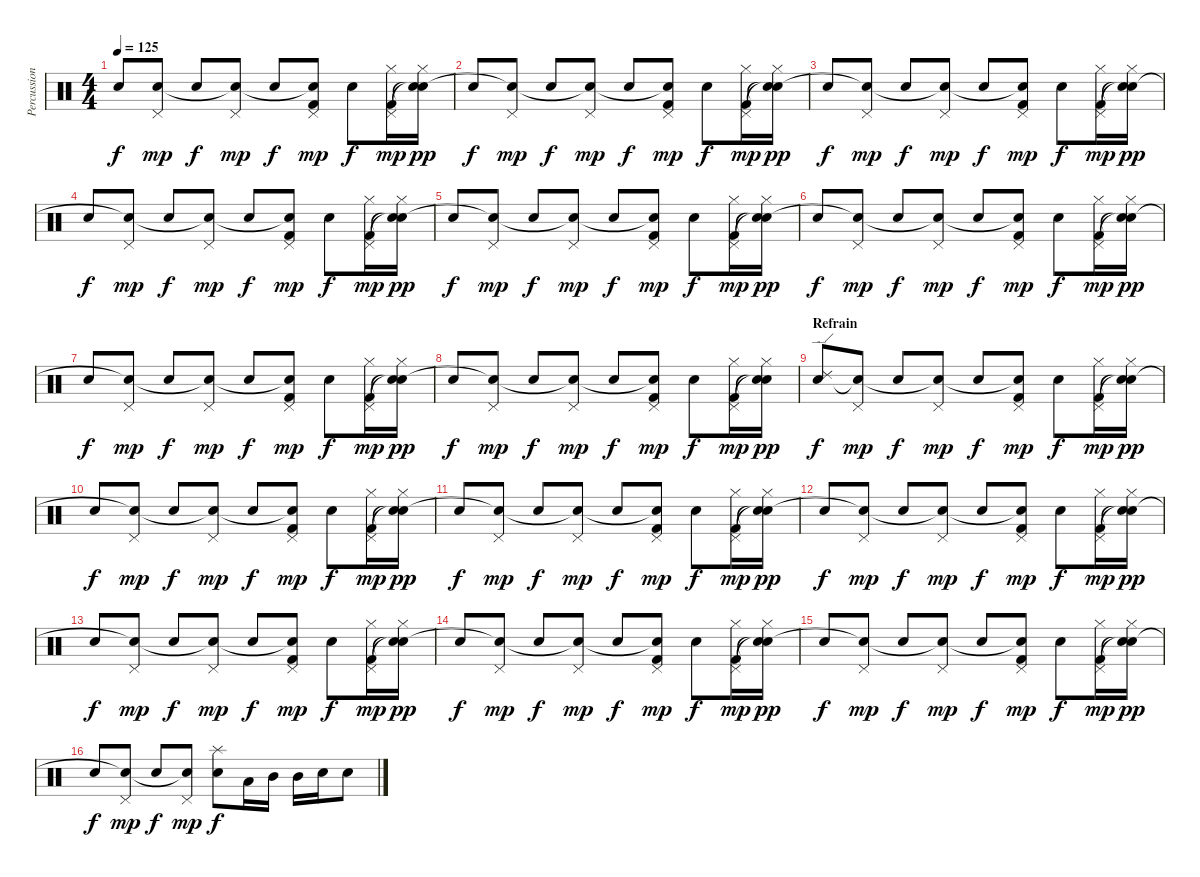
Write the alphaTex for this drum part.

\track ("Percussion" "Percussion") {instrument percussion}
\staff {score}
\articulation defaults
\ts (4 4)
\tempo 125
\clef neutral
\ks c "Electric Snare (hit)".8{dy f}
("Pedal Hi-Hat (hit)" "Snare (hit)"{t}).8{dy mp} "Electric Snare (hit)".8{dy f} ("Pedal Hi-Hat (hit)" "Snare (hit)"{t}).8{dy mp} "Electric Snare (hit)".8{dy f} ("Pedal Hi-Hat (hit)" "Snare (hit)"{t} "Kick (hit) 2").8{dy mp} "Electric Snare (hit)".8{dy f} ("Hi-Hat (closed)" "Pedal Hi-Hat (hit)" "Kick (hit) 2").16{dy mp} ("Hi-Hat (closed)" "Snare (hit)"{t} "Snare (hit)"{t}).16{dy pp} |
"Electric Snare (hit)".8{dy f} ("Pedal Hi-Hat (hit)" "Snare (hit)"{t}).8{dy mp} "Electric Snare (hit)".8{dy f} ("Pedal Hi-Hat (hit)" "Snare (hit)"{t}).8{dy mp} "Electric Snare (hit)".8{dy f} ("Pedal Hi-Hat (hit)" "Snare (hit)"{t} "Kick (hit) 2").8{dy mp} "Electric Snare (hit)".8{dy f} ("Hi-Hat (closed)" "Pedal Hi-Hat (hit)" "Kick (hit) 2").16{dy mp} ("Hi-Hat (closed)" "Snare (hit)"{t} "Snare (hit)"{t}).16{dy pp} |
"Electric Snare (hit)".8{dy f} ("Pedal Hi-Hat (hit)" "Snare (hit)"{t}).8{dy mp} "Electric Snare (hit)".8{dy f} ("Pedal Hi-Hat (hit)" "Snare (hit)"{t}).8{dy mp} "Electric Snare (hit)".8{dy f} ("Pedal Hi-Hat (hit)" "Snare (hit)"{t} "Kick (hit) 2").8{dy mp} "Electric Snare (hit)".8{dy f} ("Hi-Hat (closed)" "Pedal Hi-Hat (hit)" "Kick (hit) 2").16{dy mp} ("Hi-Hat (closed)" "Snare (hit)"{t} "Snare (hit)"{t}).16{dy pp} |
"Electric Snare (hit)".8{dy f} ("Pedal Hi-Hat (hit)" "Snare (hit)"{t}).8{dy mp} "Electric Snare (hit)".8{dy f} ("Pedal Hi-Hat (hit)" "Snare (hit)"{t}).8{dy mp} "Electric Snare (hit)".8{dy f} ("Pedal Hi-Hat (hit)" "Snare (hit)"{t} "Kick (hit) 2").8{dy mp} "Electric Snare (hit)".8{dy f} ("Hi-Hat (closed)" "Pedal Hi-Hat (hit)" "Kick (hit) 2").16{dy mp} ("Hi-Hat (closed)" "Snare (hit)"{t} "Snare (hit)"{t}).16{dy pp} |
"Electric Snare (hit)".8{dy f} ("Pedal Hi-Hat (hit)" "Snare (hit)"{t}).8{dy mp} "Electric Snare (hit)".8{dy f} ("Pedal Hi-Hat (hit)" "Snare (hit)"{t}).8{dy mp} "Electric Snare (hit)".8{dy f} ("Pedal Hi-Hat (hit)" "Snare (hit)"{t} "Kick (hit) 2").8{dy mp} "Electric Snare (hit)".8{dy f} ("Hi-Hat (closed)" "Pedal Hi-Hat (hit)" "Kick (hit) 2").16{dy mp} ("Hi-Hat (closed)" "Snare (hit)"{t} "Snare (hit)"{t}).16{dy pp} |
"Electric Snare (hit)".8{dy f} ("Pedal Hi-Hat (hit)" "Snare (hit)"{t}).8{dy mp} "Electric Snare (hit)".8{dy f} ("Pedal Hi-Hat (hit)" "Snare (hit)"{t}).8{dy mp} "Electric Snare (hit)".8{dy f} ("Pedal Hi-Hat (hit)" "Snare (hit)"{t} "Kick (hit) 2").8{dy mp} "Electric Snare (hit)".8{dy f} ("Hi-Hat (closed)" "Pedal Hi-Hat (hit)" "Kick (hit) 2").16{dy mp} ("Hi-Hat (closed)" "Snare (hit)"{t} "Snare (hit)"{t}).16{dy pp} |
"Electric Snare (hit)".8{dy f} ("Pedal Hi-Hat (hit)" "Snare (hit)"{t}).8{dy mp} "Electric Snare (hit)".8{dy f} ("Pedal Hi-Hat (hit)" "Snare (hit)"{t}).8{dy mp} "Electric Snare (hit)".8{dy f} ("Pedal Hi-Hat (hit)" "Snare (hit)"{t} "Kick (hit) 2").8{dy mp} "Electric Snare (hit)".8{dy f} ("Hi-Hat (closed)" "Pedal Hi-Hat (hit)" "Kick (hit) 2").16{dy mp} ("Hi-Hat (closed)" "Snare (hit)"{t} "Snare (hit)"{t}).16{dy pp} |
"Electric Snare (hit)".8{dy f} ("Pedal Hi-Hat (hit)" "Snare (hit)"{t}).8{dy mp} "Electric Snare (hit)".8{dy f} ("Pedal Hi-Hat (hit)" "Snare (hit)"{t}).8{dy mp} "Electric Snare (hit)".8{dy f} ("Pedal Hi-Hat (hit)" "Snare (hit)"{t} "Kick (hit) 2").8{dy mp} "Electric Snare (hit)".8{dy f} ("Hi-Hat (closed)" "Pedal Hi-Hat (hit)" "Kick (hit) 2").16{dy mp} ("Hi-Hat (closed)" "Snare (hit)"{t} "Snare (hit)"{t}).16{dy pp} |
\section ("" "Refrain")
("Ride (edge) 2" "Electric Snare (hit)").8{dy f} ("Pedal Hi-Hat (hit)" "Snare (hit)"{t}).8{dy mp} "Electric Snare (hit)".8{dy f} ("Pedal Hi-Hat (hit)" "Snare (hit)"{t}).8{dy mp} "Electric Snare (hit)".8{dy f} ("Pedal Hi-Hat (hit)" "Snare (hit)"{t} "Kick (hit) 2").8{dy mp} "Electric Snare (hit)".8{dy f} ("Hi-Hat (closed)" "Pedal Hi-Hat (hit)" "Kick (hit) 2").16{dy mp} ("Hi-Hat (closed)" "Snare (hit)"{t} "Snare (hit)"{t}).16{dy pp} |
"Electric Snare (hit)".8{dy f} ("Pedal Hi-Hat (hit)" "Snare (hit)"{t}).8{dy mp} "Electric Snare (hit)".8{dy f} ("Pedal Hi-Hat (hit)" "Snare (hit)"{t}).8{dy mp} "Electric Snare (hit)".8{dy f} ("Pedal Hi-Hat (hit)" "Snare (hit)"{t} "Kick (hit) 2").8{dy mp} "Electric Snare (hit)".8{dy f} ("Hi-Hat (closed)" "Pedal Hi-Hat (hit)" "Kick (hit) 2").16{dy mp} ("Hi-Hat (closed)" "Snare (hit)"{t} "Snare (hit)"{t}).16{dy pp} |
"Electric Snare (hit)".8{dy f} ("Pedal Hi-Hat (hit)" "Snare (hit)"{t}).8{dy mp} "Electric Snare (hit)".8{dy f} ("Pedal Hi-Hat (hit)" "Snare (hit)"{t}).8{dy mp} "Electric Snare (hit)".8{dy f} ("Pedal Hi-Hat (hit)" "Snare (hit)"{t} "Kick (hit) 2").8{dy mp} "Electric Snare (hit)".8{dy f} ("Hi-Hat (closed)" "Pedal Hi-Hat (hit)" "Kick (hit) 2").16{dy mp} ("Hi-Hat (closed)" "Snare (hit)"{t} "Snare (hit)"{t}).16{dy pp} |
"Electric Snare (hit)".8{dy f} ("Pedal Hi-Hat (hit)" "Snare (hit)"{t}).8{dy mp} "Electric Snare (hit)".8{dy f} ("Pedal Hi-Hat (hit)" "Snare (hit)"{t}).8{dy mp} "Electric Snare (hit)".8{dy f} ("Pedal Hi-Hat (hit)" "Snare (hit)"{t} "Kick (hit) 2").8{dy mp} "Electric Snare (hit)".8{dy f} ("Hi-Hat (closed)" "Pedal Hi-Hat (hit)" "Kick (hit) 2").16{dy mp} ("Hi-Hat (closed)" "Snare (hit)"{t} "Snare (hit)"{t}).16{dy pp} |
"Electric Snare (hit)".8{dy f} ("Pedal Hi-Hat (hit)" "Snare (hit)"{t}).8{dy mp} "Electric Snare (hit)".8{dy f} ("Pedal Hi-Hat (hit)" "Snare (hit)"{t}).8{dy mp} "Electric Snare (hit)".8{dy f} ("Pedal Hi-Hat (hit)" "Snare (hit)"{t} "Kick (hit) 2").8{dy mp} "Electric Snare (hit)".8{dy f} ("Hi-Hat (closed)" "Pedal Hi-Hat (hit)" "Kick (hit) 2").16{dy mp} ("Hi-Hat (closed)" "Snare (hit)"{t} "Snare (hit)"{t}).16{dy pp} |
"Electric Snare (hit)".8{dy f} ("Pedal Hi-Hat (hit)" "Snare (hit)"{t}).8{dy mp} "Electric Snare (hit)".8{dy f} ("Pedal Hi-Hat (hit)" "Snare (hit)"{t}).8{dy mp} "Electric Snare (hit)".8{dy f} ("Pedal Hi-Hat (hit)" "Snare (hit)"{t} "Kick (hit) 2").8{dy mp} "Electric Snare (hit)".8{dy f} ("Hi-Hat (closed)" "Pedal Hi-Hat (hit)" "Kick (hit) 2").16{dy mp} ("Hi-Hat (closed)" "Snare (hit)"{t} "Snare (hit)"{t}).16{dy pp} |
"Electric Snare (hit)".8{dy f} ("Pedal Hi-Hat (hit)" "Snare (hit)"{t}).8{dy mp} "Electric Snare (hit)".8{dy f} ("Pedal Hi-Hat (hit)" "Snare (hit)"{t}).8{dy mp} "Electric Snare (hit)".8{dy f} ("Pedal Hi-Hat (hit)" "Snare (hit)"{t} "Kick (hit) 2").8{dy mp} "Electric Snare (hit)".8{dy f} ("Hi-Hat (closed)" "Pedal Hi-Hat (hit)" "Kick (hit) 2").16{dy mp} ("Hi-Hat (closed)" "Snare (hit)"{t} "Snare (hit)"{t}).16{dy pp} |
"Electric Snare (hit)".8{dy f} ("Pedal Hi-Hat (hit)" "Snare (hit)"{t}).8{dy mp} "Electric Snare (hit)".8{dy f} ("Pedal Hi-Hat (hit)" "Snare (hit)"{t}).8{dy mp} ("Splash (hit)" "Electric Snare (hit)").8{dy f} "Low Tom (hit)".16 "Mid Tom (hit)".16 "Mid Tom (hit)".16 "Electric Snare (hit)".16 "Electric Snare (hit)".8
